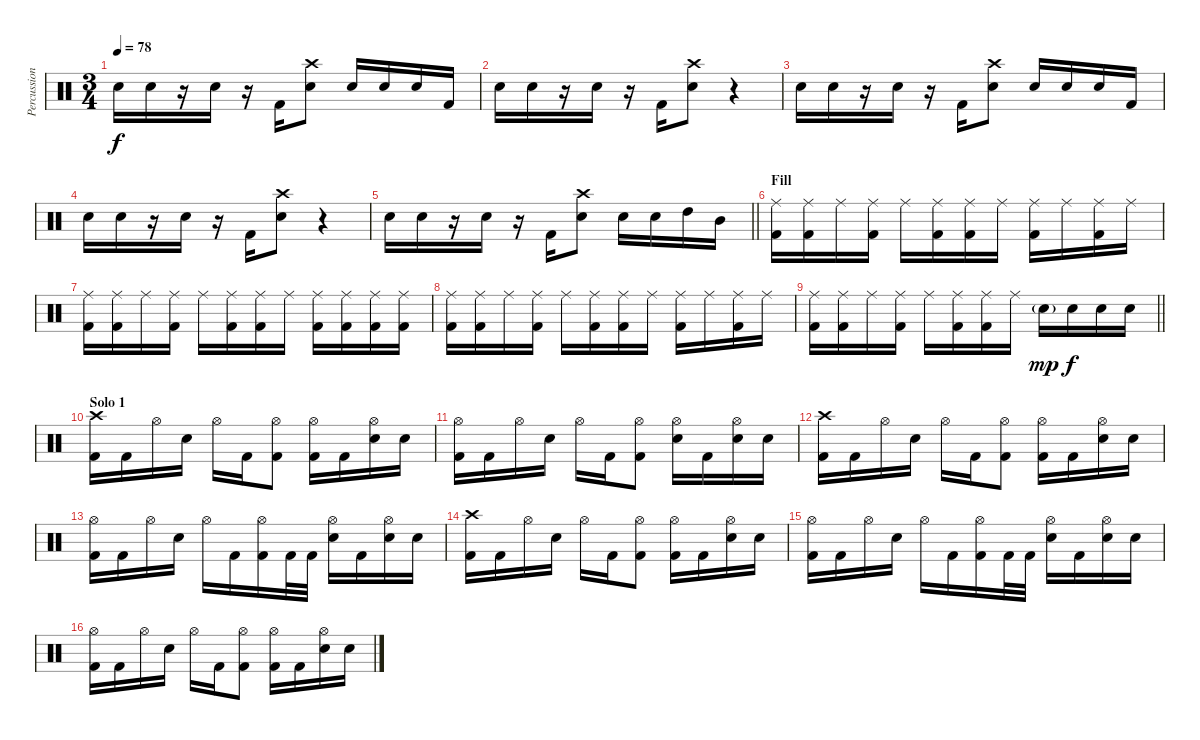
\track ("Percussion" "Percussion") {instrument percussion}
\staff {score}
\articulation defaults
\ts (3 4)
\tempo 78
\clef neutral
\ks c "Electric Snare (hit)".16{dy f} "Electric Snare (hit)".16
r.16 "Electric Snare (hit)".16 r.16 "Kick (hit) 2".16 ("Crash high (hit)" "Electric Snare (hit)").8 "Electric Snare (hit)".16 "Electric Snare (hit)".16 "Electric Snare (hit)".16 "Kick (hit) 2".16 |
"Electric Snare (hit)".16 "Electric Snare (hit)".16 r.16 "Electric Snare (hit)".16 r.16 "Kick (hit) 2".16 ("Crash high (hit)" "Electric Snare (hit)").8 r.4 |
"Electric Snare (hit)".16 "Electric Snare (hit)".16 r.16 "Electric Snare (hit)".16 r.16 "Kick (hit) 2".16 ("Crash high (hit)" "Electric Snare (hit)").8 "Electric Snare (hit)".16 "Electric Snare (hit)".16 "Electric Snare (hit)".16 "Kick (hit) 2".16 |
"Electric Snare (hit)".16 "Electric Snare (hit)".16 r.16 "Electric Snare (hit)".16 r.16 "Kick (hit) 2".16 ("Crash high (hit)" "Electric Snare (hit)").8 r.4 |
\barLineRight lightlight "Electric Snare (hit)".16 "Electric Snare (hit)".16
r.16 "Electric Snare (hit)".16 r.16 "Kick (hit) 2".16 ("Crash high (hit)" "Electric Snare (hit)").8 "Electric Snare (hit)".16 "Electric Snare (hit)".16 "High Tom (hit)".16 "Mid Tom (hit)".16 |
\section ("" "Fill")
("Ride (middle)" "Kick (hit) 2").16 ("Ride (middle)" "Kick (hit) 2").16 "Ride (middle)".16 ("Ride (middle)" "Kick (hit) 2").16 "Ride (middle)".16 ("Ride (middle)" "Kick (hit) 2").16 ("Ride (middle)" "Kick (hit) 2").16 "Ride (middle)".16 ("Ride (middle)" "Kick (hit) 2").16 "Ride (middle)".16 ("Ride (middle)" "Kick (hit) 2").16 "Ride (middle)".16 |
("Ride (middle)" "Kick (hit) 2").16 ("Ride (middle)" "Kick (hit) 2").16 "Ride (middle)".16 ("Ride (middle)" "Kick (hit) 2").16 "Ride (middle)".16 ("Ride (middle)" "Kick (hit) 2").16 ("Ride (middle)" "Kick (hit) 2").16 "Ride (middle)".16 ("Ride (middle)" "Kick (hit) 2").16 ("Ride (middle)" "Kick (hit) 2").16 ("Ride (middle)" "Kick (hit) 2").16 ("Ride (middle)" "Kick (hit) 2").16 |
("Ride (middle)" "Kick (hit) 2").16 ("Ride (middle)" "Kick (hit) 2").16 "Ride (middle)".16 ("Ride (middle)" "Kick (hit) 2").16 "Ride (middle)".16 ("Ride (middle)" "Kick (hit) 2").16 ("Ride (middle)" "Kick (hit) 2").16 "Ride (middle)".16 ("Ride (middle)" "Kick (hit) 2").16 "Ride (middle)".16 ("Ride (middle)" "Kick (hit) 2").16 "Ride (middle)".16 |
\barLineRight lightlight
("Ride (middle)" "Kick (hit) 2").16 ("Ride (middle)" "Kick (hit) 2").16 "Ride (middle)".16 ("Ride (middle)" "Kick (hit) 2").16 "Ride (middle)".16 ("Ride (middle)" "Kick (hit) 2").16 ("Ride (middle)" "Kick (hit) 2").16 "Ride (middle)".16 "Electric Snare (hit)"{g}.16{dy mp} "Electric Snare (hit)".16{dy f} "Electric Snare (hit)".16 "Electric Snare (hit)".16 |
\section ("" "Solo 1")
("Crash high (hit)" "Kick (hit) 2").16 "Kick (hit) 2".16 "Hi-Hat (open)".16 "Electric Snare (hit)".16 "Hi-Hat (open)".16 "Kick (hit) 2".16 ("Hi-Hat (open)" "Kick (hit) 2").8 ("Hi-Hat (open)" "Kick (hit) 2").16 "Kick (hit) 2".16 ("Hi-Hat (open)" "Electric Snare (hit)").16 "Electric Snare (hit)".16 |
("Hi-Hat (open)" "Kick (hit) 2").16 "Kick (hit) 2".16 "Hi-Hat (open)".16 "Electric Snare (hit)".16 "Hi-Hat (open)".16 "Kick (hit) 2".16 ("Hi-Hat (open)" "Kick (hit) 2").8 ("Hi-Hat (open)" "Electric Snare (hit)").16 "Kick (hit) 2".16 ("Hi-Hat (open)" "Electric Snare (hit)").16 "Electric Snare (hit)".16 |
("Crash high (hit)" "Kick (hit) 2").16 "Kick (hit) 2".16 "Hi-Hat (open)".16 "Electric Snare (hit)".16 "Hi-Hat (open)".16 "Kick (hit) 2".16 ("Hi-Hat (open)" "Kick (hit) 2").8 ("Hi-Hat (open)" "Kick (hit) 2").16 "Kick (hit) 2".16 ("Hi-Hat (open)" "Electric Snare (hit)").16 "Electric Snare (hit)".16 |
("Hi-Hat (open)" "Kick (hit) 2").16 "Kick (hit) 2".16 "Hi-Hat (open)".16 "Electric Snare (hit)".16 "Hi-Hat (open)".16 "Kick (hit) 2".16 ("Hi-Hat (open)" "Kick (hit) 2").16 "Kick (hit) 2".32 "Kick (hit) 2".32 ("Hi-Hat (open)" "Electric Snare (hit)").16 "Kick (hit) 2".16 ("Hi-Hat (open)" "Electric Snare (hit)").16 "Electric Snare (hit)".16 |
("Crash high (hit)" "Kick (hit) 2").16 "Kick (hit) 2".16 "Hi-Hat (open)".16 "Electric Snare (hit)".16 "Hi-Hat (open)".16 "Kick (hit) 2".16 ("Hi-Hat (open)" "Kick (hit) 2").8 ("Hi-Hat (open)" "Kick (hit) 2").16 "Kick (hit) 2".16 ("Hi-Hat (open)" "Electric Snare (hit)").16 "Electric Snare (hit)".16 |
("Hi-Hat (open)" "Kick (hit) 2").16 "Kick (hit) 2".16 "Hi-Hat (open)".16 "Electric Snare (hit)".16 "Hi-Hat (open)".16 "Kick (hit) 2".16 ("Hi-Hat (open)" "Kick (hit) 2").16 "Kick (hit) 2".32 "Kick (hit) 2".32 ("Hi-Hat (open)" "Electric Snare (hit)").16 "Kick (hit) 2".16 ("Hi-Hat (open)" "Electric Snare (hit)").16 "Electric Snare (hit)".16 |
("Hi-Hat (open)" "Kick (hit) 2").16 "Kick (hit) 2".16 "Hi-Hat (open)".16 "Electric Snare (hit)".16 "Hi-Hat (open)".16 "Kick (hit) 2".16 ("Hi-Hat (open)" "Kick (hit) 2").8 ("Hi-Hat (open)" "Kick (hit) 2").16 "Kick (hit) 2".16 ("Hi-Hat (open)" "Electric Snare (hit)").16 "Electric Snare (hit)".16
